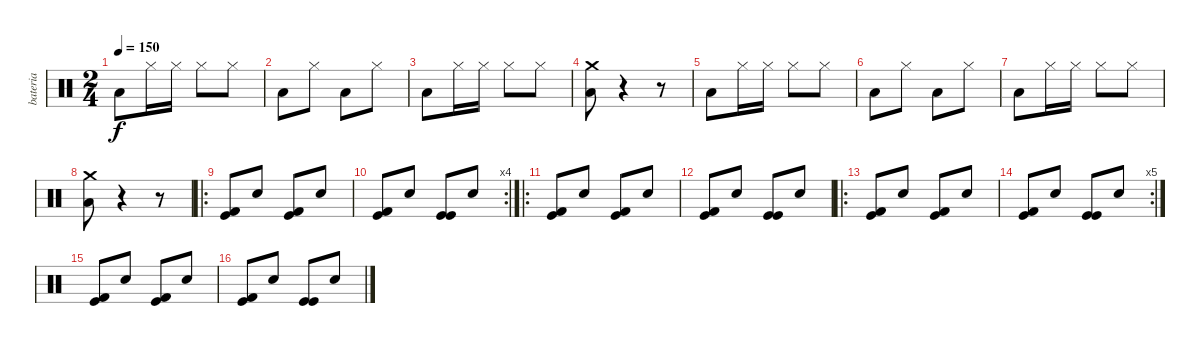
\track ("bateria" "bateria") {instrument percussion}
\staff {score}
\articulation defaults
\ts (2 4)
\tempo 150
\clef neutral
\ks c "Low Tom (hit)".8{dy f} "Hi-Hat (closed)".16 "Hi-Hat (closed)".16 "Hi-Hat (closed)".8 "Hi-Hat (closed)".8
|
"Low Tom (hit)".8 "Hi-Hat (closed)".8 "Low Tom (hit)".8 "Hi-Hat (closed)".8 |
"Low Tom (hit)".8 "Hi-Hat (closed)".16 "Hi-Hat (closed)".16 "Hi-Hat (closed)".8 "Hi-Hat (closed)".8 |
("Crash medium (hit)" "Low Tom (hit)").8 r.4 r.8 |
"Low Tom (hit)".8 "Hi-Hat (closed)".16 "Hi-Hat (closed)".16 "Hi-Hat (closed)".8 "Hi-Hat (closed)".8 |
"Low Tom (hit)".8 "Hi-Hat (closed)".8 "Low Tom (hit)".8 "Hi-Hat (closed)".8 |
"Low Tom (hit)".8 "Hi-Hat (closed)".16 "Hi-Hat (closed)".16 "Hi-Hat (closed)".8 "Hi-Hat (closed)".8 |
("Crash medium (hit)" "Low Tom (hit)").8 r.4 r.8 |
\ro
("Kick (hit) 2" "Kick (hit)").8 "Electric Snare (hit)".8 ("Kick (hit) 2" "Kick (hit)").8 "Electric Snare (hit)".8 |
\rc 4
("Kick (hit) 2" "Kick (hit)").8 "Electric Snare (hit)".8 ("Kick (hit)" "Kick (hit)").8 "Electric Snare (hit)".8 |
\ro
("Kick (hit) 2" "Kick (hit)").8 "Electric Snare (hit)".8 ("Kick (hit) 2" "Kick (hit)").8 "Electric Snare (hit)".8 |
("Kick (hit) 2" "Kick (hit)").8 "Electric Snare (hit)".8 ("Kick (hit)" "Kick (hit)").8 "Electric Snare (hit)".8 |
\ro
("Kick (hit) 2" "Kick (hit)").8 "Electric Snare (hit)".8 ("Kick (hit) 2" "Kick (hit)").8 "Electric Snare (hit)".8 |
\rc 5
("Kick (hit) 2" "Kick (hit)").8 "Electric Snare (hit)".8 ("Kick (hit)" "Kick (hit)").8 "Electric Snare (hit)".8 |
("Kick (hit) 2" "Kick (hit)").8 "Electric Snare (hit)".8 ("Kick (hit) 2" "Kick (hit)").8 "Electric Snare (hit)".8 |
("Kick (hit) 2" "Kick (hit)").8 "Electric Snare (hit)".8 ("Kick (hit)" "Kick (hit)").8 "Electric Snare (hit)".8
